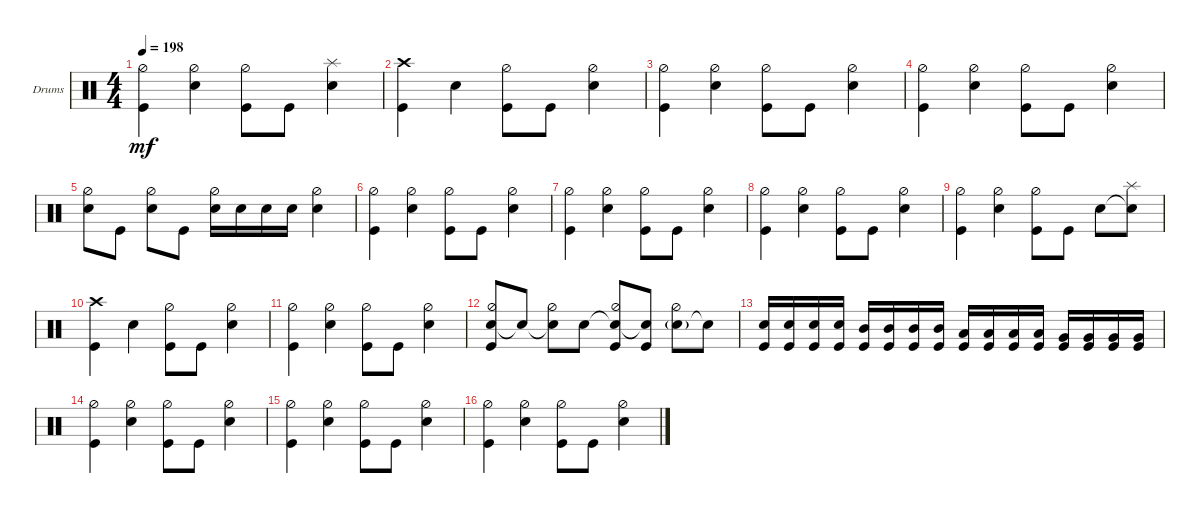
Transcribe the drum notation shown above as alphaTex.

\bracketExtendMode groupsimilarinstruments
\firstSystemTrackNameOrientation horizontal
\otherSystemsTrackNameOrientation horizontal
\track ("Drumkit" "Drums") {instrument percussion}
\staff {score}
\articulation defaults
\ts (4 4)
\tempo 198
\clef neutral
\ks c
("Kick (hit)" "Hi-Hat (half)").4{dy mf} ("Snare (hit) 2" "Hi-Hat (half)").4 ("Kick (hit)" "Hi-Hat (half)").8 "Kick (hit)".8 ("Snare (hit) 2" "Splash (hit)").4 |
("Kick (hit)" "Crash high (hit)").4 "Snare (hit) 2".4 ("Kick (hit)" "Hi-Hat (half)").8 "Kick (hit)".8 ("Snare (hit) 2" "Hi-Hat (half)").4 |
("Kick (hit)" "Hi-Hat (half)").4 ("Snare (hit) 2" "Hi-Hat (half)").4 ("Kick (hit)" "Hi-Hat (half)").8 "Kick (hit)".8 ("Snare (hit) 2" "Hi-Hat (half)").4 |
("Kick (hit)" "Hi-Hat (half)").4 ("Snare (hit) 2" "Hi-Hat (half)").4 ("Kick (hit)" "Hi-Hat (half)").8 "Kick (hit)".8 ("Snare (hit) 2" "Hi-Hat (half)").4 |
("Snare (hit) 2" "Hi-Hat (half)").8 "Kick (hit)".8 ("Snare (hit) 2" "Hi-Hat (half)").8 "Kick (hit)".8 ("Snare (hit) 2" "Hi-Hat (half)").16 "Snare (hit) 2".16 "Snare (hit) 2".16 "Snare (hit) 2".16 ("Snare (hit) 2" "Hi-Hat (half)").4 |
("Kick (hit)" "Hi-Hat (half)").4 ("Snare (hit) 2" "Hi-Hat (half)").4 ("Kick (hit)" "Hi-Hat (half)").8 "Kick (hit)".8 ("Snare (hit) 2" "Hi-Hat (half)").4 |
("Kick (hit)" "Hi-Hat (half)").4 ("Snare (hit) 2" "Hi-Hat (half)").4 ("Kick (hit)" "Hi-Hat (half)").8 "Kick (hit)".8 ("Snare (hit) 2" "Hi-Hat (half)").4 |
("Kick (hit)" "Hi-Hat (half)").4 ("Snare (hit) 2" "Hi-Hat (half)").4 ("Kick (hit)" "Hi-Hat (half)").8 "Kick (hit)".8 ("Snare (hit) 2" "Hi-Hat (half)").4 |
("Kick (hit)" "Hi-Hat (half)").4 ("Snare (hit) 2" "Hi-Hat (half)").4 ("Kick (hit)" "Hi-Hat (half)").8 "Kick (hit)".8 "Snare (hit) 2".8 ("Snare (hit) 2"{t} "Splash (hit)").8 |
("Kick (hit)" "Crash high (hit)").4 "Snare (hit) 2".4 ("Kick (hit)" "Hi-Hat (half)").8 "Kick (hit)".8 ("Snare (hit) 2" "Hi-Hat (half)").4 |
("Kick (hit)" "Hi-Hat (half)").4 ("Snare (hit) 2" "Hi-Hat (half)").4 ("Kick (hit)" "Hi-Hat (half)").8 "Kick (hit)".8 ("Snare (hit) 2" "Hi-Hat (half)").4 |
("Snare (hit) 2" "Hi-Hat (half)" "Kick (hit)").8 "Snare (hit) 2"{t}.8 ("Snare (hit) 2"{t} "Hi-Hat (half)").8 "Snare (hit) 2".8 ("Snare (hit) 2"{t} "Hi-Hat (half)" "Kick (hit)").8 ("Snare (hit) 2"{t} "Kick (hit)").8 ("Snare (hit) 2"{g} "Hi-Hat (half)").8 "Snare (hit) 2"{t}.8 |
("Snare (hit) 2" "Kick (hit)").16 ("Snare (hit) 2" "Kick (hit)").16 ("Snare (hit) 2" "Kick (hit)").16 ("Snare (hit) 2" "Kick (hit)").16 ("Mid Tom (hit)" "Kick (hit)").16 ("Mid Tom (hit)" "Kick (hit)").16 ("Mid Tom (hit)" "Kick (hit)").16 ("Mid Tom (hit)" "Kick (hit)").16 ("Low Tom (hit)" "Kick (hit)").16 ("Low Tom (hit)" "Kick (hit)").16 ("Low Tom (hit)" "Kick (hit)").16 ("Low Tom (hit)" "Kick (hit)").16 ("Very Low Tom (hit)" "Kick (hit)").16 ("Very Low Tom (hit)" "Kick (hit)").16 ("Very Low Tom (hit)" "Kick (hit)").16 ("Very Low Tom (hit)" "Kick (hit)").16 |
("Kick (hit)" "Hi-Hat (half)").4 ("Snare (hit) 2" "Hi-Hat (half)").4 ("Kick (hit)" "Hi-Hat (half)").8 "Kick (hit)".8 ("Snare (hit) 2" "Hi-Hat (half)").4 |
("Kick (hit)" "Hi-Hat (half)").4 ("Snare (hit) 2" "Hi-Hat (half)").4 ("Kick (hit)" "Hi-Hat (half)").8 "Kick (hit)".8 ("Snare (hit) 2" "Hi-Hat (half)").4 |
("Kick (hit)" "Hi-Hat (half)").4 ("Snare (hit) 2" "Hi-Hat (half)").4 ("Kick (hit)" "Hi-Hat (half)").8 "Kick (hit)".8 ("Snare (hit) 2" "Hi-Hat (half)").4
